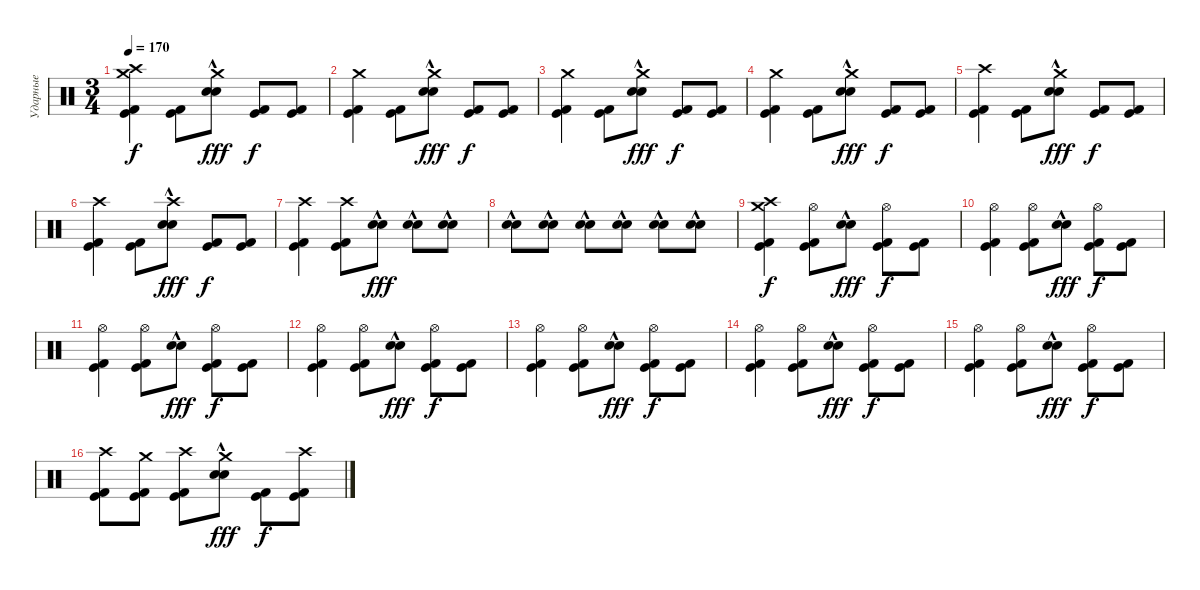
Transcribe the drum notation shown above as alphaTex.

\track ("Ударные" "Ударные") {instrument percussion}
\staff {score}
\articulation defaults
\ts (3 4)
\tempo 170
\clef neutral
\ks c
("Crash high (hit)" "Kick (hit)" "Kick (hit) 2" "Crash medium (hit)").4{dy f} ("Kick (hit)" "Kick (hit) 2").8 ("Crash medium (hit)" "Snare (hit) 2"{hac} "Electric Snare (hit)"{hac}).8{dy fff} ("Kick (hit)" "Kick (hit) 2").8{dy f} ("Kick (hit)" "Kick (hit) 2").8 |
("Crash medium (hit)" "Kick (hit)" "Kick (hit) 2").4 ("Kick (hit)" "Kick (hit) 2").8 ("Crash medium (hit)" "Snare (hit) 2"{hac} "Electric Snare (hit)"{hac}).8{dy fff} ("Kick (hit)" "Kick (hit) 2").8{dy f} ("Kick (hit)" "Kick (hit) 2").8 |
("Crash medium (hit)" "Kick (hit)" "Kick (hit) 2").4 ("Kick (hit)" "Kick (hit) 2").8 ("Crash medium (hit)" "Snare (hit) 2"{hac} "Electric Snare (hit)"{hac}).8{dy fff} ("Kick (hit)" "Kick (hit) 2").8{dy f} ("Kick (hit)" "Kick (hit) 2").8 |
("Crash medium (hit)" "Kick (hit)" "Kick (hit) 2").4 ("Kick (hit)" "Kick (hit) 2").8 ("Crash medium (hit)" "Snare (hit) 2"{hac} "Electric Snare (hit)"{hac}).8{dy fff} ("Kick (hit)" "Kick (hit) 2").8{dy f} ("Kick (hit)" "Kick (hit) 2").8 |
("Crash high (hit)" "Kick (hit)" "Kick (hit) 2").4 ("Kick (hit)" "Kick (hit) 2").8 ("Crash medium (hit)" "Snare (hit) 2"{hac} "Electric Snare (hit)"{hac}).8{dy fff} ("Kick (hit)" "Kick (hit) 2").8{dy f} ("Kick (hit)" "Kick (hit) 2").8 |
("Crash high (hit)" "Kick (hit)" "Kick (hit) 2").4 ("Kick (hit)" "Kick (hit) 2").8 ("Crash high (hit)" "Snare (hit) 2"{hac} "Electric Snare (hit)"{hac}).8{dy fff} ("Kick (hit)" "Kick (hit) 2").8{dy f} ("Kick (hit)" "Kick (hit) 2").8 |
("Crash high (hit)" "Kick (hit)" "Kick (hit) 2").4 ("Crash high (hit)" "Kick (hit)" "Kick (hit) 2").8 ("Snare (hit) 2"{hac} "Electric Snare (hit)"{hac}).8{dy fff} ("Snare (hit) 2"{hac} "Electric Snare (hit)"{hac}).8 ("Snare (hit) 2"{hac} "Electric Snare (hit)"{hac}).8 |
("Snare (hit) 2"{hac} "Electric Snare (hit)"{hac}).8 ("Snare (hit) 2"{hac} "Electric Snare (hit)"{hac}).8 ("Snare (hit) 2"{hac} "Electric Snare (hit)"{hac}).8 ("Snare (hit) 2"{hac} "Electric Snare (hit)"{hac}).8 ("Snare (hit) 2"{hac} "Electric Snare (hit)"{hac}).8 ("Snare (hit) 2"{hac} "Electric Snare (hit)"{hac}).8 |
("Crash high (hit)" "Kick (hit)" "Kick (hit) 2" "Crash medium (hit)").4{dy f} ("Hi-Hat (open)" "Kick (hit)" "Kick (hit) 2").8 ("Snare (hit) 2"{hac} "Electric Snare (hit)"{hac}).8{dy fff} ("Hi-Hat (open)" "Kick (hit)" "Kick (hit) 2").8{dy f} ("Kick (hit)" "Kick (hit) 2").8 |
("Hi-Hat (open)" "Kick (hit)" "Kick (hit) 2").4 ("Hi-Hat (open)" "Kick (hit)" "Kick (hit) 2").8 ("Snare (hit) 2"{hac} "Electric Snare (hit)"{hac}).8{dy fff} ("Hi-Hat (open)" "Kick (hit)" "Kick (hit) 2").8{dy f} ("Kick (hit)" "Kick (hit) 2").8 |
("Hi-Hat (open)" "Kick (hit)" "Kick (hit) 2").4 ("Hi-Hat (open)" "Kick (hit)" "Kick (hit) 2").8 ("Snare (hit) 2"{hac} "Electric Snare (hit)"{hac}).8{dy fff} ("Hi-Hat (open)" "Kick (hit)" "Kick (hit) 2").8{dy f} ("Kick (hit)" "Kick (hit) 2").8 |
("Hi-Hat (open)" "Kick (hit)" "Kick (hit) 2").4 ("Hi-Hat (open)" "Kick (hit)" "Kick (hit) 2").8 ("Snare (hit) 2"{hac} "Electric Snare (hit)"{hac}).8{dy fff} ("Hi-Hat (open)" "Kick (hit)" "Kick (hit) 2").8{dy f} ("Kick (hit)" "Kick (hit) 2").8 |
("Hi-Hat (open)" "Kick (hit)" "Kick (hit) 2").4 ("Hi-Hat (open)" "Kick (hit)" "Kick (hit) 2").8 ("Snare (hit) 2"{hac} "Electric Snare (hit)"{hac}).8{dy fff} ("Hi-Hat (open)" "Kick (hit)" "Kick (hit) 2").8{dy f} ("Kick (hit)" "Kick (hit) 2").8 |
("Hi-Hat (open)" "Kick (hit)" "Kick (hit) 2").4 ("Hi-Hat (open)" "Kick (hit)" "Kick (hit) 2").8 ("Snare (hit) 2"{hac} "Electric Snare (hit)"{hac}).8{dy fff} ("Hi-Hat (open)" "Kick (hit)" "Kick (hit) 2").8{dy f} ("Kick (hit)" "Kick (hit) 2").8 |
("Hi-Hat (open)" "Kick (hit)" "Kick (hit) 2").4 ("Hi-Hat (open)" "Kick (hit)" "Kick (hit) 2").8 ("Snare (hit) 2"{hac} "Electric Snare (hit)"{hac}).8{dy fff} ("Hi-Hat (open)" "Kick (hit)" "Kick (hit) 2").8{dy f} ("Kick (hit)" "Kick (hit) 2").8 |
("Crash high (hit)" "Kick (hit)" "Kick (hit) 2").8 ("Crash medium (hit)" "Kick (hit)" "Kick (hit) 2").8 ("Crash high (hit)" "Kick (hit)" "Kick (hit) 2").8 ("Crash medium (hit)" "Snare (hit) 2"{hac} "Electric Snare (hit)"{hac}).8{dy fff} ("Kick (hit)" "Kick (hit) 2").8{dy f} ("Crash high (hit)" "Kick (hit)" "Kick (hit) 2").8
